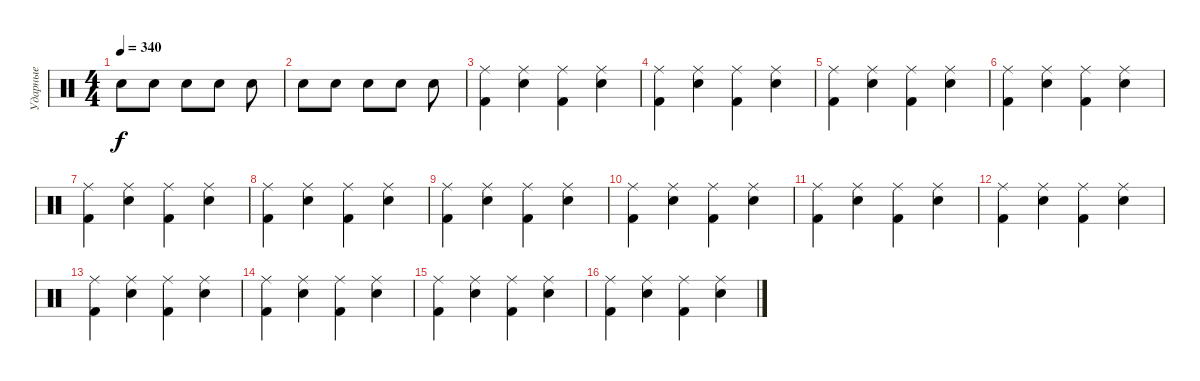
\track ("Ударные" "Ударные") {instrument percussion}
\staff {score}
\articulation defaults
\ts (4 4)
\tempo 340
\clef neutral
\ks c "Electric Snare (hit)".8{dy f} "Electric Snare (hit)".8 "Electric Snare (hit)".8 "Electric Snare (hit)".8 "Electric Snare (hit)".8
|
"Electric Snare (hit)".8 "Electric Snare (hit)".8 "Electric Snare (hit)".8 "Electric Snare (hit)".8 "Electric Snare (hit)".8 |
("Kick (hit) 2" "Ride (middle)").4 ("Electric Snare (hit)" "Ride (middle)").4 ("Kick (hit) 2" "Ride (middle)").4 ("Electric Snare (hit)" "Ride (middle)").4 |
("Kick (hit) 2" "Ride (middle)").4 ("Electric Snare (hit)" "Ride (middle)").4 ("Kick (hit) 2" "Ride (middle)").4 ("Electric Snare (hit)" "Ride (middle)").4 |
("Kick (hit) 2" "Ride (middle)").4 ("Electric Snare (hit)" "Ride (middle)").4 ("Kick (hit) 2" "Ride (middle)").4 ("Electric Snare (hit)" "Ride (middle)").4 |
("Kick (hit) 2" "Ride (middle)").4 ("Electric Snare (hit)" "Ride (middle)").4 ("Kick (hit) 2" "Ride (middle)").4 ("Electric Snare (hit)" "Ride (middle)").4 |
("Kick (hit) 2" "Ride (middle)").4 ("Electric Snare (hit)" "Ride (middle)").4 ("Kick (hit) 2" "Ride (middle)").4 ("Electric Snare (hit)" "Ride (middle)").4 |
("Kick (hit) 2" "Ride (middle)").4 ("Electric Snare (hit)" "Ride (middle)").4 ("Kick (hit) 2" "Ride (middle)").4 ("Electric Snare (hit)" "Ride (middle)").4 |
("Kick (hit) 2" "Ride (middle)").4 ("Electric Snare (hit)" "Ride (middle)").4 ("Kick (hit) 2" "Ride (middle)").4 ("Electric Snare (hit)" "Ride (middle)").4 |
("Kick (hit) 2" "Ride (middle)").4 ("Electric Snare (hit)" "Ride (middle)").4 ("Kick (hit) 2" "Ride (middle)").4 ("Electric Snare (hit)" "Ride (middle)").4 |
("Kick (hit) 2" "Ride (middle)").4 ("Electric Snare (hit)" "Ride (middle)").4 ("Kick (hit) 2" "Ride (middle)").4 ("Electric Snare (hit)" "Ride (middle)").4 |
("Kick (hit) 2" "Ride (middle)").4 ("Electric Snare (hit)" "Ride (middle)").4 ("Kick (hit) 2" "Ride (middle)").4 ("Electric Snare (hit)" "Ride (middle)").4 |
("Kick (hit) 2" "Ride (middle)").4 ("Electric Snare (hit)" "Ride (middle)").4 ("Kick (hit) 2" "Ride (middle)").4 ("Electric Snare (hit)" "Ride (middle)").4 |
("Kick (hit) 2" "Ride (middle)").4 ("Electric Snare (hit)" "Ride (middle)").4 ("Kick (hit) 2" "Ride (middle)").4 ("Electric Snare (hit)" "Ride (middle)").4 |
("Kick (hit) 2" "Ride (middle)").4 ("Electric Snare (hit)" "Ride (middle)").4 ("Kick (hit) 2" "Ride (middle)").4 ("Electric Snare (hit)" "Ride (middle)").4 |
("Kick (hit) 2" "Ride (middle)").4 ("Electric Snare (hit)" "Ride (middle)").4 ("Kick (hit) 2" "Ride (middle)").4 ("Electric Snare (hit)" "Ride (middle)").4
